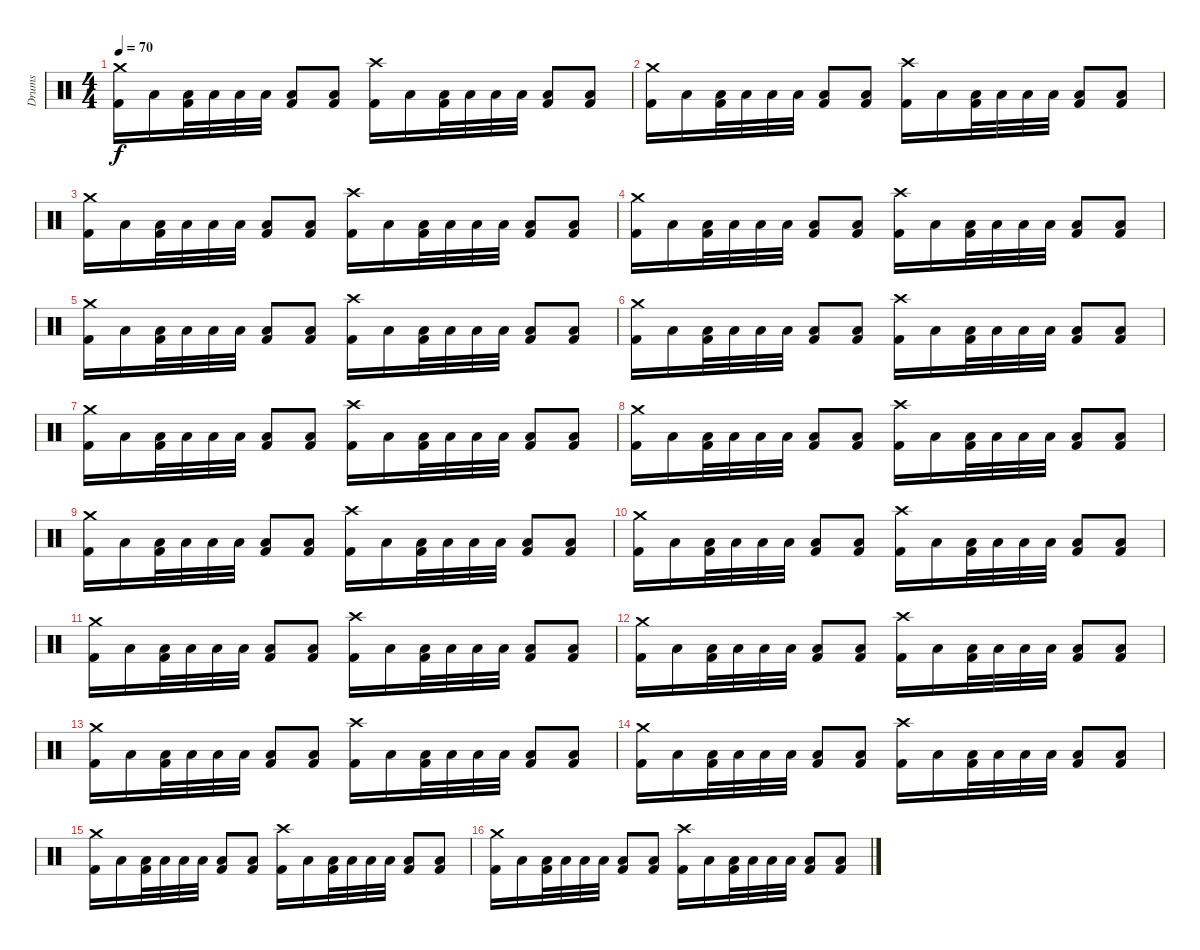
\track ("Drums" "Drums") {instrument percussion}
\staff {score}
\articulation defaults
\ts (4 4)
\tempo 70
\clef neutral
\ks c
("Crash medium (hit)" "Kick (hit) 2").16{dy f} "Low Tom (hit)".16 ("Low Tom (hit)" "Kick (hit) 2").32 "Low Tom (hit)".32 "Low Tom (hit)".32 "Low Tom (hit)".32 ("Low Tom (hit)" "Kick (hit) 2").8 ("Low Tom (hit)" "Kick (hit) 2").8 ("Crash high (hit)" "Kick (hit) 2").16 "Low Tom (hit)".16 ("Low Tom (hit)" "Kick (hit) 2").32 "Low Tom (hit)".32 "Low Tom (hit)".32 "Low Tom (hit)".32 ("Low Tom (hit)" "Kick (hit) 2").8 ("Low Tom (hit)" "Kick (hit) 2").8 |
("Crash medium (hit)" "Kick (hit) 2").16 "Low Tom (hit)".16 ("Low Tom (hit)" "Kick (hit) 2").32 "Low Tom (hit)".32 "Low Tom (hit)".32 "Low Tom (hit)".32 ("Low Tom (hit)" "Kick (hit) 2").8 ("Low Tom (hit)" "Kick (hit) 2").8 ("Crash high (hit)" "Kick (hit) 2").16 "Low Tom (hit)".16 ("Low Tom (hit)" "Kick (hit) 2").32 "Low Tom (hit)".32 "Low Tom (hit)".32 "Low Tom (hit)".32 ("Low Tom (hit)" "Kick (hit) 2").8 ("Low Tom (hit)" "Kick (hit) 2").8 |
("Crash medium (hit)" "Kick (hit) 2").16 "Low Tom (hit)".16 ("Low Tom (hit)" "Kick (hit) 2").32 "Low Tom (hit)".32 "Low Tom (hit)".32 "Low Tom (hit)".32 ("Low Tom (hit)" "Kick (hit) 2").8 ("Low Tom (hit)" "Kick (hit) 2").8 ("Crash high (hit)" "Kick (hit) 2").16 "Low Tom (hit)".16 ("Low Tom (hit)" "Kick (hit) 2").32 "Low Tom (hit)".32 "Low Tom (hit)".32 "Low Tom (hit)".32 ("Low Tom (hit)" "Kick (hit) 2").8 ("Low Tom (hit)" "Kick (hit) 2").8 |
("Crash medium (hit)" "Kick (hit) 2").16 "Low Tom (hit)".16 ("Low Tom (hit)" "Kick (hit) 2").32 "Low Tom (hit)".32 "Low Tom (hit)".32 "Low Tom (hit)".32 ("Low Tom (hit)" "Kick (hit) 2").8 ("Low Tom (hit)" "Kick (hit) 2").8 ("Crash high (hit)" "Kick (hit) 2").16 "Low Tom (hit)".16 ("Low Tom (hit)" "Kick (hit) 2").32 "Low Tom (hit)".32 "Low Tom (hit)".32 "Low Tom (hit)".32 ("Low Tom (hit)" "Kick (hit) 2").8 ("Low Tom (hit)" "Kick (hit) 2").8 |
("Crash medium (hit)" "Kick (hit) 2").16 "Low Tom (hit)".16 ("Low Tom (hit)" "Kick (hit) 2").32 "Low Tom (hit)".32 "Low Tom (hit)".32 "Low Tom (hit)".32 ("Low Tom (hit)" "Kick (hit) 2").8 ("Low Tom (hit)" "Kick (hit) 2").8 ("Crash high (hit)" "Kick (hit) 2").16 "Low Tom (hit)".16 ("Low Tom (hit)" "Kick (hit) 2").32 "Low Tom (hit)".32 "Low Tom (hit)".32 "Low Tom (hit)".32 ("Low Tom (hit)" "Kick (hit) 2").8 ("Low Tom (hit)" "Kick (hit) 2").8 |
("Crash medium (hit)" "Kick (hit) 2").16 "Low Tom (hit)".16 ("Low Tom (hit)" "Kick (hit) 2").32 "Low Tom (hit)".32 "Low Tom (hit)".32 "Low Tom (hit)".32 ("Low Tom (hit)" "Kick (hit) 2").8 ("Low Tom (hit)" "Kick (hit) 2").8 ("Crash high (hit)" "Kick (hit) 2").16 "Low Tom (hit)".16 ("Low Tom (hit)" "Kick (hit) 2").32 "Low Tom (hit)".32 "Low Tom (hit)".32 "Low Tom (hit)".32 ("Low Tom (hit)" "Kick (hit) 2").8 ("Low Tom (hit)" "Kick (hit) 2").8 |
("Crash medium (hit)" "Kick (hit) 2").16 "Low Tom (hit)".16 ("Low Tom (hit)" "Kick (hit) 2").32 "Low Tom (hit)".32 "Low Tom (hit)".32 "Low Tom (hit)".32 ("Low Tom (hit)" "Kick (hit) 2").8 ("Low Tom (hit)" "Kick (hit) 2").8 ("Crash high (hit)" "Kick (hit) 2").16 "Low Tom (hit)".16 ("Low Tom (hit)" "Kick (hit) 2").32 "Low Tom (hit)".32 "Low Tom (hit)".32 "Low Tom (hit)".32 ("Low Tom (hit)" "Kick (hit) 2").8 ("Low Tom (hit)" "Kick (hit) 2").8 |
("Crash medium (hit)" "Kick (hit) 2").16 "Low Tom (hit)".16 ("Low Tom (hit)" "Kick (hit) 2").32 "Low Tom (hit)".32 "Low Tom (hit)".32 "Low Tom (hit)".32 ("Low Tom (hit)" "Kick (hit) 2").8 ("Low Tom (hit)" "Kick (hit) 2").8 ("Crash high (hit)" "Kick (hit) 2").16 "Low Tom (hit)".16 ("Low Tom (hit)" "Kick (hit) 2").32 "Low Tom (hit)".32 "Low Tom (hit)".32 "Low Tom (hit)".32 ("Low Tom (hit)" "Kick (hit) 2").8 ("Low Tom (hit)" "Kick (hit) 2").8 |
("Crash medium (hit)" "Kick (hit) 2").16 "Low Tom (hit)".16 ("Low Tom (hit)" "Kick (hit) 2").32 "Low Tom (hit)".32 "Low Tom (hit)".32 "Low Tom (hit)".32 ("Low Tom (hit)" "Kick (hit) 2").8 ("Low Tom (hit)" "Kick (hit) 2").8 ("Crash high (hit)" "Kick (hit) 2").16 "Low Tom (hit)".16 ("Low Tom (hit)" "Kick (hit) 2").32 "Low Tom (hit)".32 "Low Tom (hit)".32 "Low Tom (hit)".32 ("Low Tom (hit)" "Kick (hit) 2").8 ("Low Tom (hit)" "Kick (hit) 2").8 |
("Crash medium (hit)" "Kick (hit) 2").16 "Low Tom (hit)".16 ("Low Tom (hit)" "Kick (hit) 2").32 "Low Tom (hit)".32 "Low Tom (hit)".32 "Low Tom (hit)".32 ("Low Tom (hit)" "Kick (hit) 2").8 ("Low Tom (hit)" "Kick (hit) 2").8 ("Crash high (hit)" "Kick (hit) 2").16 "Low Tom (hit)".16 ("Low Tom (hit)" "Kick (hit) 2").32 "Low Tom (hit)".32 "Low Tom (hit)".32 "Low Tom (hit)".32 ("Low Tom (hit)" "Kick (hit) 2").8 ("Low Tom (hit)" "Kick (hit) 2").8 |
("Crash medium (hit)" "Kick (hit) 2").16 "Low Tom (hit)".16 ("Low Tom (hit)" "Kick (hit) 2").32 "Low Tom (hit)".32 "Low Tom (hit)".32 "Low Tom (hit)".32 ("Low Tom (hit)" "Kick (hit) 2").8 ("Low Tom (hit)" "Kick (hit) 2").8 ("Crash high (hit)" "Kick (hit) 2").16 "Low Tom (hit)".16 ("Low Tom (hit)" "Kick (hit) 2").32 "Low Tom (hit)".32 "Low Tom (hit)".32 "Low Tom (hit)".32 ("Low Tom (hit)" "Kick (hit) 2").8 ("Low Tom (hit)" "Kick (hit) 2").8 |
("Crash medium (hit)" "Kick (hit) 2").16 "Low Tom (hit)".16 ("Low Tom (hit)" "Kick (hit) 2").32 "Low Tom (hit)".32 "Low Tom (hit)".32 "Low Tom (hit)".32 ("Low Tom (hit)" "Kick (hit) 2").8 ("Low Tom (hit)" "Kick (hit) 2").8 ("Crash high (hit)" "Kick (hit) 2").16 "Low Tom (hit)".16 ("Low Tom (hit)" "Kick (hit) 2").32 "Low Tom (hit)".32 "Low Tom (hit)".32 "Low Tom (hit)".32 ("Low Tom (hit)" "Kick (hit) 2").8 ("Low Tom (hit)" "Kick (hit) 2").8 |
("Crash medium (hit)" "Kick (hit) 2").16 "Low Tom (hit)".16 ("Low Tom (hit)" "Kick (hit) 2").32 "Low Tom (hit)".32 "Low Tom (hit)".32 "Low Tom (hit)".32 ("Low Tom (hit)" "Kick (hit) 2").8 ("Low Tom (hit)" "Kick (hit) 2").8 ("Crash high (hit)" "Kick (hit) 2").16 "Low Tom (hit)".16 ("Low Tom (hit)" "Kick (hit) 2").32 "Low Tom (hit)".32 "Low Tom (hit)".32 "Low Tom (hit)".32 ("Low Tom (hit)" "Kick (hit) 2").8 ("Low Tom (hit)" "Kick (hit) 2").8 |
("Crash medium (hit)" "Kick (hit) 2").16 "Low Tom (hit)".16 ("Low Tom (hit)" "Kick (hit) 2").32 "Low Tom (hit)".32 "Low Tom (hit)".32 "Low Tom (hit)".32 ("Low Tom (hit)" "Kick (hit) 2").8 ("Low Tom (hit)" "Kick (hit) 2").8 ("Crash high (hit)" "Kick (hit) 2").16 "Low Tom (hit)".16 ("Low Tom (hit)" "Kick (hit) 2").32 "Low Tom (hit)".32 "Low Tom (hit)".32 "Low Tom (hit)".32 ("Low Tom (hit)" "Kick (hit) 2").8 ("Low Tom (hit)" "Kick (hit) 2").8 |
("Crash medium (hit)" "Kick (hit) 2").16 "Low Tom (hit)".16 ("Low Tom (hit)" "Kick (hit) 2").32 "Low Tom (hit)".32 "Low Tom (hit)".32 "Low Tom (hit)".32 ("Low Tom (hit)" "Kick (hit) 2").8 ("Low Tom (hit)" "Kick (hit) 2").8 ("Crash high (hit)" "Kick (hit) 2").16 "Low Tom (hit)".16 ("Low Tom (hit)" "Kick (hit) 2").32 "Low Tom (hit)".32 "Low Tom (hit)".32 "Low Tom (hit)".32 ("Low Tom (hit)" "Kick (hit) 2").8 ("Low Tom (hit)" "Kick (hit) 2").8 |
("Crash medium (hit)" "Kick (hit) 2").16 "Low Tom (hit)".16 ("Low Tom (hit)" "Kick (hit) 2").32 "Low Tom (hit)".32 "Low Tom (hit)".32 "Low Tom (hit)".32 ("Low Tom (hit)" "Kick (hit) 2").8 ("Low Tom (hit)" "Kick (hit) 2").8 ("Crash high (hit)" "Kick (hit) 2").16 "Low Tom (hit)".16 ("Low Tom (hit)" "Kick (hit) 2").32 "Low Tom (hit)".32 "Low Tom (hit)".32 "Low Tom (hit)".32 ("Low Tom (hit)" "Kick (hit) 2").8 ("Low Tom (hit)" "Kick (hit) 2").8
